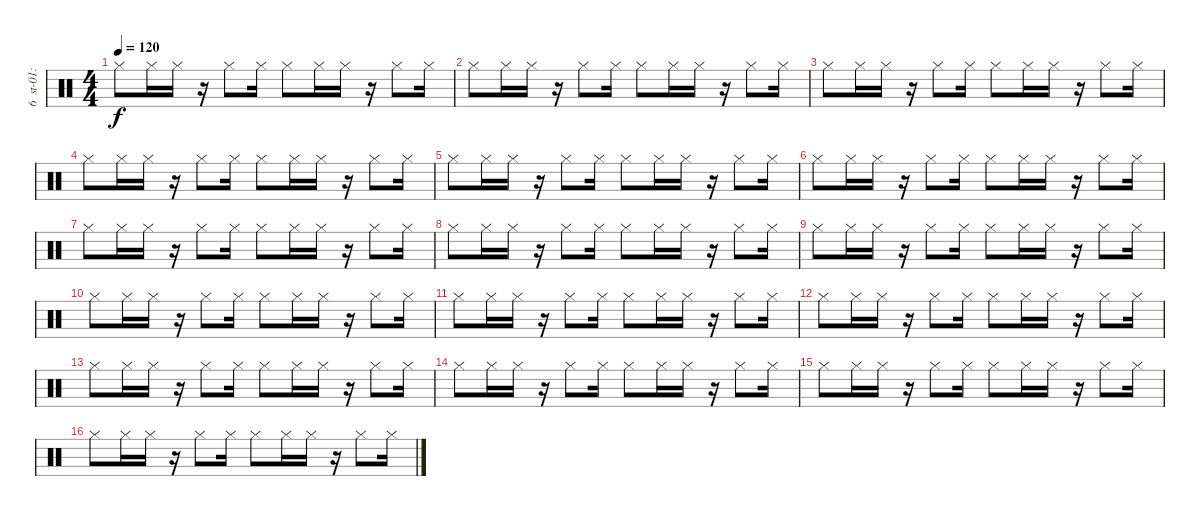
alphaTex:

\track (" 6  st-01:hihat2" " 6  st-01:") {instrument percussion}
\staff {score}
\articulation defaults
\ts (4 4)
\tempo 120
\clef neutral
\ks c "Hi-Hat (closed)".8{dy f} "Hi-Hat (closed)".16 "Hi-Hat (closed)".16
r.16 "Hi-Hat (closed)".8 "Hi-Hat (closed)".16 "Hi-Hat (closed)".8 "Hi-Hat (closed)".16 "Hi-Hat (closed)".16 r.16 "Hi-Hat (closed)".8 "Hi-Hat (closed)".16 |
"Hi-Hat (closed)".8 "Hi-Hat (closed)".16 "Hi-Hat (closed)".16 r.16 "Hi-Hat (closed)".8 "Hi-Hat (closed)".16 "Hi-Hat (closed)".8 "Hi-Hat (closed)".16 "Hi-Hat (closed)".16 r.16 "Hi-Hat (closed)".8 "Hi-Hat (closed)".16 |
"Hi-Hat (closed)".8 "Hi-Hat (closed)".16 "Hi-Hat (closed)".16 r.16 "Hi-Hat (closed)".8 "Hi-Hat (closed)".16 "Hi-Hat (closed)".8 "Hi-Hat (closed)".16 "Hi-Hat (closed)".16 r.16 "Hi-Hat (closed)".8 "Hi-Hat (closed)".16 |
"Hi-Hat (closed)".8 "Hi-Hat (closed)".16 "Hi-Hat (closed)".16 r.16 "Hi-Hat (closed)".8 "Hi-Hat (closed)".16 "Hi-Hat (closed)".8 "Hi-Hat (closed)".16 "Hi-Hat (closed)".16 r.16 "Hi-Hat (closed)".8 "Hi-Hat (closed)".16 |
"Hi-Hat (closed)".8 "Hi-Hat (closed)".16 "Hi-Hat (closed)".16 r.16 "Hi-Hat (closed)".8 "Hi-Hat (closed)".16 "Hi-Hat (closed)".8 "Hi-Hat (closed)".16 "Hi-Hat (closed)".16 r.16 "Hi-Hat (closed)".8 "Hi-Hat (closed)".16 |
"Hi-Hat (closed)".8 "Hi-Hat (closed)".16 "Hi-Hat (closed)".16 r.16 "Hi-Hat (closed)".8 "Hi-Hat (closed)".16 "Hi-Hat (closed)".8 "Hi-Hat (closed)".16 "Hi-Hat (closed)".16 r.16 "Hi-Hat (closed)".8 "Hi-Hat (closed)".16 |
"Hi-Hat (closed)".8 "Hi-Hat (closed)".16 "Hi-Hat (closed)".16 r.16 "Hi-Hat (closed)".8 "Hi-Hat (closed)".16 "Hi-Hat (closed)".8 "Hi-Hat (closed)".16 "Hi-Hat (closed)".16 r.16 "Hi-Hat (closed)".8 "Hi-Hat (closed)".16 |
"Hi-Hat (closed)".8 "Hi-Hat (closed)".16 "Hi-Hat (closed)".16 r.16 "Hi-Hat (closed)".8 "Hi-Hat (closed)".16 "Hi-Hat (closed)".8 "Hi-Hat (closed)".16 "Hi-Hat (closed)".16 r.16 "Hi-Hat (closed)".8 "Hi-Hat (closed)".16 |
"Hi-Hat (closed)".8 "Hi-Hat (closed)".16 "Hi-Hat (closed)".16 r.16 "Hi-Hat (closed)".8 "Hi-Hat (closed)".16 "Hi-Hat (closed)".8 "Hi-Hat (closed)".16 "Hi-Hat (closed)".16 r.16 "Hi-Hat (closed)".8 "Hi-Hat (closed)".16 |
"Hi-Hat (closed)".8 "Hi-Hat (closed)".16 "Hi-Hat (closed)".16 r.16 "Hi-Hat (closed)".8 "Hi-Hat (closed)".16 "Hi-Hat (closed)".8 "Hi-Hat (closed)".16 "Hi-Hat (closed)".16 r.16 "Hi-Hat (closed)".8 "Hi-Hat (closed)".16 |
"Hi-Hat (closed)".8 "Hi-Hat (closed)".16 "Hi-Hat (closed)".16 r.16 "Hi-Hat (closed)".8 "Hi-Hat (closed)".16 "Hi-Hat (closed)".8 "Hi-Hat (closed)".16 "Hi-Hat (closed)".16 r.16 "Hi-Hat (closed)".8 "Hi-Hat (closed)".16 |
"Hi-Hat (closed)".8 "Hi-Hat (closed)".16 "Hi-Hat (closed)".16 r.16 "Hi-Hat (closed)".8 "Hi-Hat (closed)".16 "Hi-Hat (closed)".8 "Hi-Hat (closed)".16 "Hi-Hat (closed)".16 r.16 "Hi-Hat (closed)".8 "Hi-Hat (closed)".16 |
"Hi-Hat (closed)".8 "Hi-Hat (closed)".16 "Hi-Hat (closed)".16 r.16 "Hi-Hat (closed)".8 "Hi-Hat (closed)".16 "Hi-Hat (closed)".8 "Hi-Hat (closed)".16 "Hi-Hat (closed)".16 r.16 "Hi-Hat (closed)".8 "Hi-Hat (closed)".16 |
"Hi-Hat (closed)".8 "Hi-Hat (closed)".16 "Hi-Hat (closed)".16 r.16 "Hi-Hat (closed)".8 "Hi-Hat (closed)".16 "Hi-Hat (closed)".8 "Hi-Hat (closed)".16 "Hi-Hat (closed)".16 r.16 "Hi-Hat (closed)".8 "Hi-Hat (closed)".16 |
"Hi-Hat (closed)".8 "Hi-Hat (closed)".16 "Hi-Hat (closed)".16 r.16 "Hi-Hat (closed)".8 "Hi-Hat (closed)".16 "Hi-Hat (closed)".8 "Hi-Hat (closed)".16 "Hi-Hat (closed)".16 r.16 "Hi-Hat (closed)".8 "Hi-Hat (closed)".16 |
"Hi-Hat (closed)".8 "Hi-Hat (closed)".16 "Hi-Hat (closed)".16 r.16 "Hi-Hat (closed)".8 "Hi-Hat (closed)".16 "Hi-Hat (closed)".8 "Hi-Hat (closed)".16 "Hi-Hat (closed)".16 r.16 "Hi-Hat (closed)".8 "Hi-Hat (closed)".16
